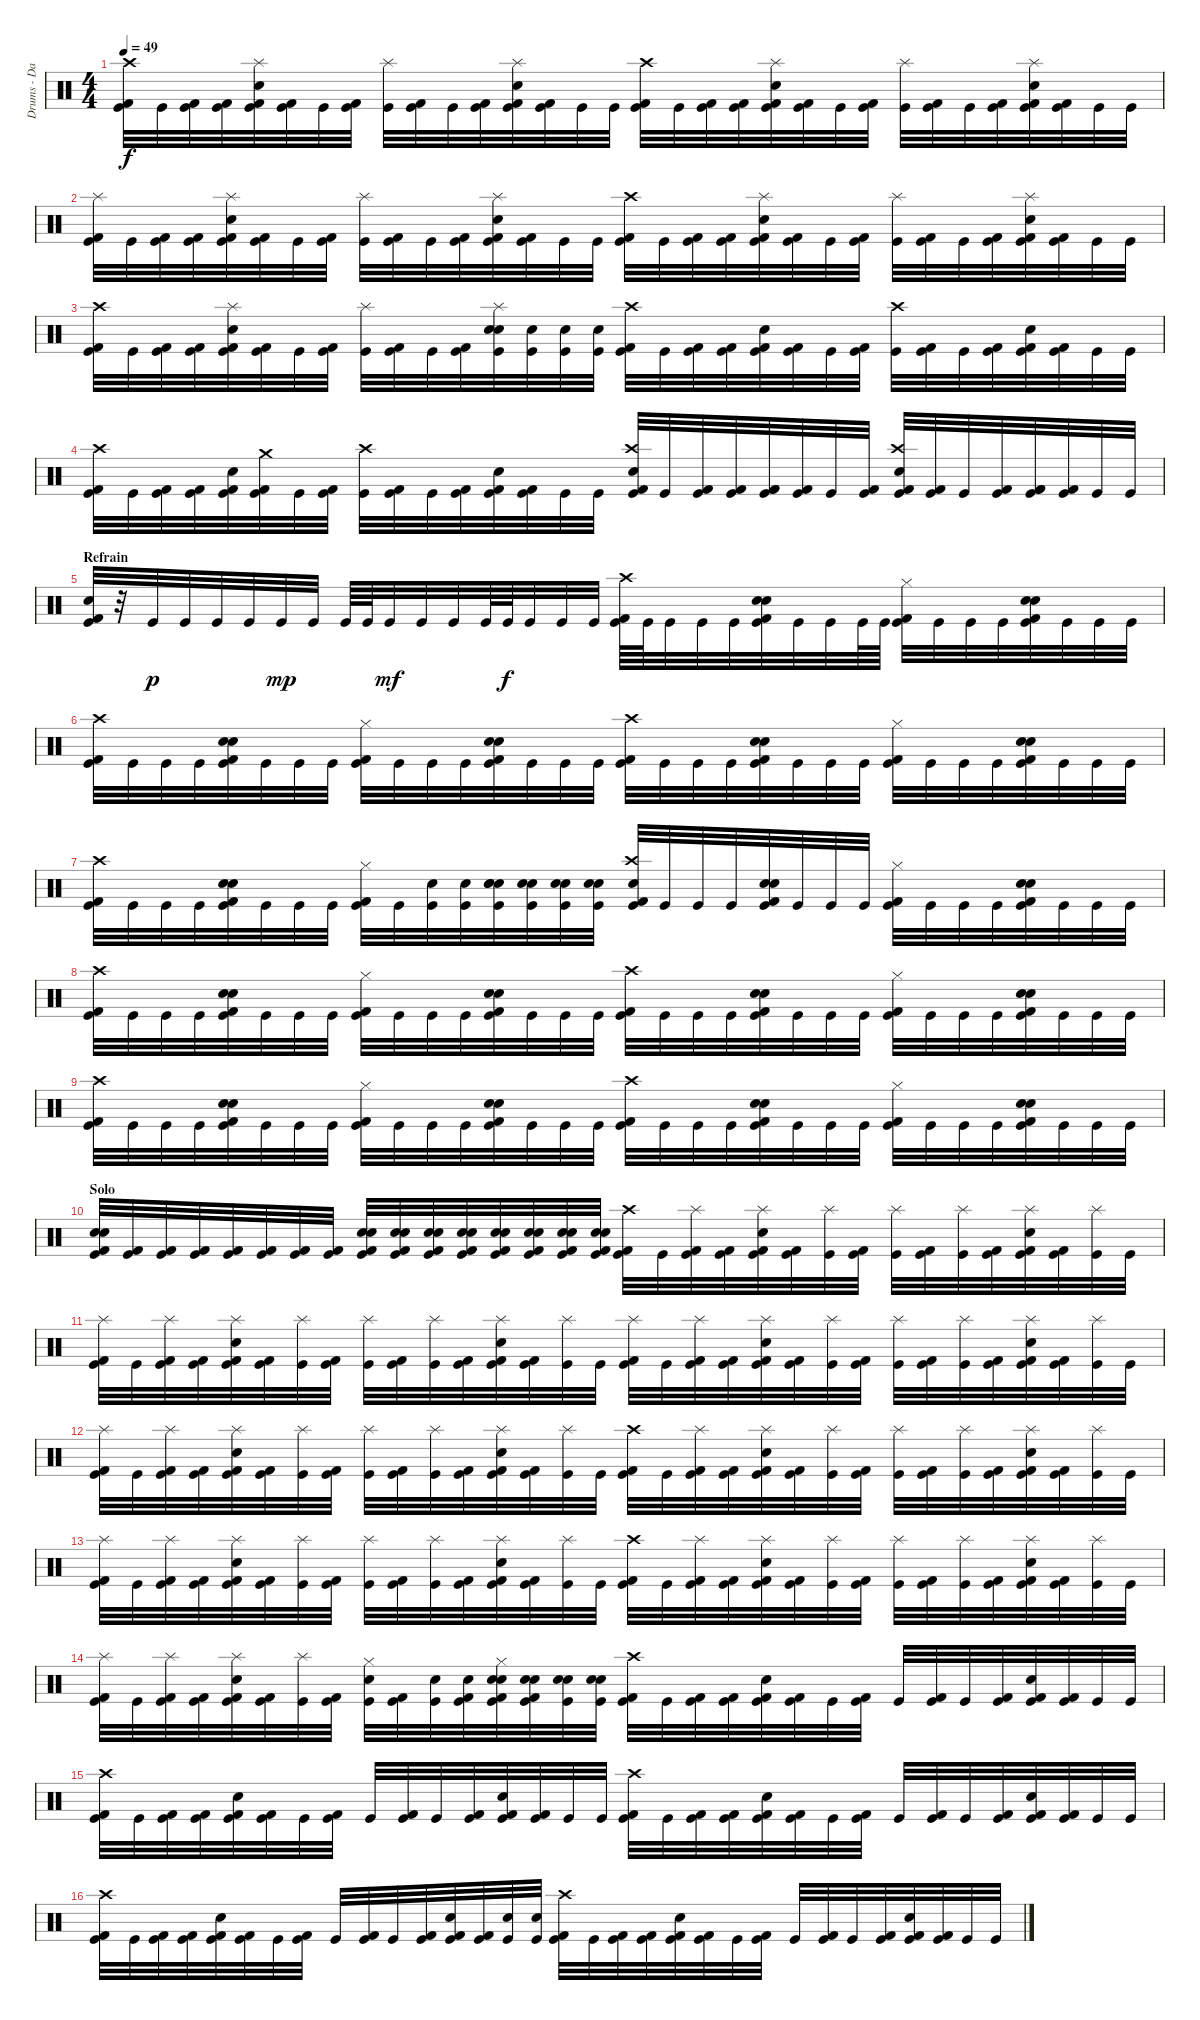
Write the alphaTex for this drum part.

\track ("Drums - Dan Zimmermann" "Drums - Da") {instrument percussion}
\staff {score}
\articulation defaults
\ts (4 4)
\tempo 49
\clef neutral
\ks c
("Kick (hit)" "Kick (hit) 2" "Crash high (hit)").32{dy f} "Kick (hit)".32 ("Kick (hit)" "Kick (hit) 2").32 ("Kick (hit)" "Kick (hit) 2").32 ("Kick (hit)" "Kick (hit) 2" "Electric Snare (hit)" "Splash (hit)").32 ("Kick (hit)" "Kick (hit) 2").32 "Kick (hit)".32 ("Kick (hit)" "Kick (hit) 2").32 ("Kick (hit)" "Splash (hit)").32 ("Kick (hit)" "Kick (hit) 2").32 "Kick (hit)".32 ("Kick (hit)" "Kick (hit) 2").32 ("Kick (hit)" "Kick (hit) 2" "Electric Snare (hit)" "Splash (hit)").32 ("Kick (hit)" "Kick (hit) 2").32 "Kick (hit)".32 "Kick (hit)".32 ("Kick (hit)" "Kick (hit) 2" "Crash high (hit)").32 "Kick (hit)".32 ("Kick (hit)" "Kick (hit) 2").32 ("Kick (hit)" "Kick (hit) 2").32 ("Kick (hit)" "Kick (hit) 2" "Electric Snare (hit)" "Splash (hit)").32 ("Kick (hit)" "Kick (hit) 2").32 "Kick (hit)".32 ("Kick (hit)" "Kick (hit) 2").32 ("Kick (hit)" "Splash (hit)").32 ("Kick (hit)" "Kick (hit) 2").32 "Kick (hit)".32 ("Kick (hit)" "Kick (hit) 2").32 ("Kick (hit)" "Kick (hit) 2" "Electric Snare (hit)" "Splash (hit)").32 ("Kick (hit)" "Kick (hit) 2").32 "Kick (hit)".32 "Kick (hit)".32 |
("Kick (hit)" "Kick (hit) 2" "Splash (hit)").32 "Kick (hit)".32 ("Kick (hit)" "Kick (hit) 2").32 ("Kick (hit)" "Kick (hit) 2").32 ("Kick (hit)" "Kick (hit) 2" "Electric Snare (hit)" "Splash (hit)").32 ("Kick (hit)" "Kick (hit) 2").32 "Kick (hit)".32 ("Kick (hit)" "Kick (hit) 2").32 ("Kick (hit)" "Splash (hit)").32 ("Kick (hit)" "Kick (hit) 2").32 "Kick (hit)".32 ("Kick (hit)" "Kick (hit) 2").32 ("Kick (hit)" "Kick (hit) 2" "Electric Snare (hit)" "Splash (hit)").32 ("Kick (hit)" "Kick (hit) 2").32 "Kick (hit)".32 "Kick (hit)".32 ("Kick (hit)" "Kick (hit) 2" "Crash high (hit)").32 "Kick (hit)".32 ("Kick (hit)" "Kick (hit) 2").32 ("Kick (hit)" "Kick (hit) 2").32 ("Kick (hit)" "Kick (hit) 2" "Electric Snare (hit)" "Splash (hit)").32 ("Kick (hit)" "Kick (hit) 2").32 "Kick (hit)".32 ("Kick (hit)" "Kick (hit) 2").32 ("Kick (hit)" "Splash (hit)").32 ("Kick (hit)" "Kick (hit) 2").32 "Kick (hit)".32 ("Kick (hit)" "Kick (hit) 2").32 ("Kick (hit)" "Kick (hit) 2" "Electric Snare (hit)" "Splash (hit)").32 ("Kick (hit)" "Kick (hit) 2").32 "Kick (hit)".32 "Kick (hit)".32 |
("Kick (hit)" "Kick (hit) 2" "Crash high (hit)").32 "Kick (hit)".32 ("Kick (hit)" "Kick (hit) 2").32 ("Kick (hit)" "Kick (hit) 2").32 ("Kick (hit)" "Kick (hit) 2" "Electric Snare (hit)" "Splash (hit)").32 ("Kick (hit)" "Kick (hit) 2").32 "Kick (hit)".32 ("Kick (hit)" "Kick (hit) 2").32 ("Kick (hit)" "Splash (hit)").32 ("Kick (hit)" "Kick (hit) 2").32 "Kick (hit)".32 ("Kick (hit)" "Kick (hit) 2").32 ("Kick (hit)" "Snare (hit) 2" "Electric Snare (hit)" "Splash (hit)").32 ("Kick (hit)" "Snare (hit) 2").32 ("Kick (hit)" "Snare (hit) 2").32 ("Kick (hit)" "Snare (hit) 2").32 ("Kick (hit)" "Kick (hit) 2" "Crash high (hit)").32 "Kick (hit)".32 ("Kick (hit)" "Kick (hit) 2").32 ("Kick (hit)" "Kick (hit) 2").32 ("Kick (hit)" "Kick (hit) 2" "Electric Snare (hit)").32 ("Kick (hit)" "Kick (hit) 2").32 "Kick (hit)".32 ("Kick (hit)" "Kick (hit) 2").32 ("Kick (hit)" "Crash high (hit)").32 ("Kick (hit)" "Kick (hit) 2").32 "Kick (hit)".32 ("Kick (hit)" "Kick (hit) 2").32 ("Kick (hit)" "Kick (hit) 2" "Electric Snare (hit)").32 ("Kick (hit)" "Kick (hit) 2").32 "Kick (hit)".32 "Kick (hit)".32 |
("Kick (hit)" "Kick (hit) 2" "Crash high (hit)").32 "Kick (hit)".32 ("Kick (hit)" "Kick (hit) 2").32 ("Kick (hit)" "Kick (hit) 2").32 ("Kick (hit)" "Kick (hit) 2" "Electric Snare (hit)").32 ("Kick (hit)" "Kick (hit) 2" "Crash medium (hit)").32 "Kick (hit)".32 ("Kick (hit)" "Kick (hit) 2").32 ("Kick (hit)" "Crash high (hit)").32 ("Kick (hit)" "Kick (hit) 2").32 "Kick (hit)".32 ("Kick (hit)" "Kick (hit) 2").32 ("Kick (hit)" "Kick (hit) 2" "Electric Snare (hit)").32 ("Kick (hit)" "Kick (hit) 2").32 "Kick (hit)".32 "Kick (hit)".32 ("Kick (hit)" "Kick (hit) 2" "Snare (hit) 2" "Crash high (hit)").32 "Kick (hit)".32 ("Kick (hit)" "Kick (hit) 2").32 ("Kick (hit)" "Kick (hit) 2").32 ("Kick (hit)" "Kick (hit) 2" "Kick (hit) 2").32 ("Kick (hit)" "Kick (hit) 2").32 "Kick (hit)".32 ("Kick (hit)" "Kick (hit) 2").32 ("Kick (hit)" "Kick (hit) 2" "Snare (hit) 2" "Crash high (hit)").32 ("Kick (hit)" "Kick (hit) 2").32 "Kick (hit)".32 ("Kick (hit)" "Kick (hit) 2").32 ("Kick (hit)" "Kick (hit) 2" "Kick (hit) 2").32 ("Kick (hit)" "Kick (hit) 2").32 "Kick (hit)".32 "Kick (hit)".32 |
\section ("" "Refrain ")
("Kick (hit)" "Kick (hit) 2" "Snare (hit) 2").32 r.32 "Kick (hit)".32{dy p} "Kick (hit)".32 "Kick (hit)".32 "Kick (hit)".32 "Kick (hit)".32{dy mp} "Kick (hit)".32 "Kick (hit)".64 "Kick (hit)".64 "Kick (hit)".32{dy mf} "Kick (hit)".32 "Kick (hit)".32 "Kick (hit)".64 "Kick (hit)".64{dy f} "Kick (hit)".32 "Kick (hit)".32 "Kick (hit)".32 ("Kick (hit)" "Kick (hit) 2" "Crash high (hit)").64 "Kick (hit)".64 "Kick (hit)".32 "Kick (hit)".32 "Kick (hit)".32 ("Kick (hit)" "Kick (hit) 2" "Snare (hit) 2" "Electric Snare (hit)").32 "Kick (hit)".32 "Kick (hit)".32 "Kick (hit)".64 "Kick (hit)".64 ("Kick (hit)" "Kick (hit) 2" "Hi-Hat (closed)").32 "Kick (hit)".32 "Kick (hit)".32 "Kick (hit)".32 ("Kick (hit)" "Kick (hit) 2" "Snare (hit) 2" "Electric Snare (hit)").32 "Kick (hit)".32 "Kick (hit)".32 "Kick (hit)".32 |
("Kick (hit)" "Kick (hit) 2" "Crash high (hit)").32 "Kick (hit)".32 "Kick (hit)".32 "Kick (hit)".32 ("Kick (hit)" "Kick (hit) 2" "Snare (hit) 2" "Electric Snare (hit)").32 "Kick (hit)".32 "Kick (hit)".32 "Kick (hit)".32 ("Kick (hit)" "Kick (hit) 2" "Hi-Hat (closed)").32 "Kick (hit)".32 "Kick (hit)".32 "Kick (hit)".32 ("Kick (hit)" "Kick (hit) 2" "Snare (hit) 2" "Electric Snare (hit)").32 "Kick (hit)".32 "Kick (hit)".32 "Kick (hit)".32 ("Kick (hit)" "Kick (hit) 2" "Crash high (hit)").32 "Kick (hit)".32 "Kick (hit)".32 "Kick (hit)".32 ("Kick (hit)" "Kick (hit) 2" "Snare (hit) 2" "Electric Snare (hit)").32 "Kick (hit)".32 "Kick (hit)".32 "Kick (hit)".32 ("Kick (hit)" "Kick (hit) 2" "Hi-Hat (closed)").32 "Kick (hit)".32 "Kick (hit)".32 "Kick (hit)".32 ("Kick (hit)" "Kick (hit) 2" "Snare (hit) 2" "Electric Snare (hit)").32 "Kick (hit)".32 "Kick (hit)".32 "Kick (hit)".32 |
("Kick (hit)" "Kick (hit) 2" "Crash high (hit)").32 "Kick (hit)".32 "Kick (hit)".32 "Kick (hit)".32 ("Kick (hit)" "Kick (hit) 2" "Snare (hit) 2" "Electric Snare (hit)").32 "Kick (hit)".32 "Kick (hit)".32 "Kick (hit)".32 ("Kick (hit)" "Kick (hit) 2" "Hi-Hat (closed)").32 "Kick (hit)".32 ("Kick (hit)" "Snare (hit) 2").32 ("Kick (hit)" "Snare (hit) 2").32 ("Kick (hit)" "Snare (hit) 2" "Snare (hit) 2" "Electric Snare (hit)").32 ("Kick (hit)" "Snare (hit) 2" "Electric Snare (hit)").32 ("Kick (hit)" "Snare (hit) 2" "Electric Snare (hit)").32 ("Kick (hit)" "Snare (hit) 2" "Electric Snare (hit)").32 ("Kick (hit)" "Kick (hit) 2" "Crash high (hit)" "Electric Snare (hit)").32 "Kick (hit)".32 "Kick (hit)".32 "Kick (hit)".32 ("Kick (hit)" "Kick (hit) 2" "Snare (hit) 2" "Electric Snare (hit)").32 "Kick (hit)".32 "Kick (hit)".32 "Kick (hit)".32 ("Kick (hit)" "Kick (hit) 2" "Hi-Hat (closed)").32 "Kick (hit)".32 "Kick (hit)".32 "Kick (hit)".32 ("Kick (hit)" "Kick (hit) 2" "Snare (hit) 2" "Electric Snare (hit)").32 "Kick (hit)".32 "Kick (hit)".32 "Kick (hit)".32 |
("Kick (hit)" "Kick (hit) 2" "Crash high (hit)").32 "Kick (hit)".32 "Kick (hit)".32 "Kick (hit)".32 ("Kick (hit)" "Kick (hit) 2" "Snare (hit) 2" "Electric Snare (hit)").32 "Kick (hit)".32 "Kick (hit)".32 "Kick (hit)".32 ("Kick (hit)" "Kick (hit) 2" "Hi-Hat (closed)").32 "Kick (hit)".32 "Kick (hit)".32 "Kick (hit)".32 ("Kick (hit)" "Kick (hit) 2" "Snare (hit) 2" "Electric Snare (hit)").32 "Kick (hit)".32 "Kick (hit)".32 "Kick (hit)".32 ("Kick (hit)" "Kick (hit) 2" "Crash high (hit)").32 "Kick (hit)".32 "Kick (hit)".32 "Kick (hit)".32 ("Kick (hit)" "Kick (hit) 2" "Snare (hit) 2" "Electric Snare (hit)").32 "Kick (hit)".32 "Kick (hit)".32 "Kick (hit)".32 ("Kick (hit)" "Kick (hit) 2" "Hi-Hat (closed)").32 "Kick (hit)".32 "Kick (hit)".32 "Kick (hit)".32 ("Kick (hit)" "Kick (hit) 2" "Snare (hit) 2" "Electric Snare (hit)").32 "Kick (hit)".32 "Kick (hit)".32 "Kick (hit)".32 |
("Kick (hit)" "Kick (hit) 2" "Crash high (hit)").32 "Kick (hit)".32 "Kick (hit)".32 "Kick (hit)".32 ("Kick (hit)" "Kick (hit) 2" "Snare (hit) 2" "Electric Snare (hit)").32 "Kick (hit)".32 "Kick (hit)".32 "Kick (hit)".32 ("Kick (hit)" "Kick (hit) 2" "Hi-Hat (closed)").32 "Kick (hit)".32 "Kick (hit)".32 "Kick (hit)".32 ("Kick (hit)" "Kick (hit) 2" "Snare (hit) 2" "Electric Snare (hit)").32 "Kick (hit)".32 "Kick (hit)".32 "Kick (hit)".32 ("Kick (hit)" "Kick (hit) 2" "Crash high (hit)").32 "Kick (hit)".32 "Kick (hit)".32 "Kick (hit)".32 ("Kick (hit)" "Kick (hit) 2" "Snare (hit) 2" "Electric Snare (hit)").32 "Kick (hit)".32 "Kick (hit)".32 "Kick (hit)".32 ("Kick (hit)" "Kick (hit) 2" "Hi-Hat (closed)").32 "Kick (hit)".32 "Kick (hit)".32 "Kick (hit)".32 ("Kick (hit)" "Kick (hit) 2" "Snare (hit) 2" "Electric Snare (hit)").32 "Kick (hit)".32 "Kick (hit)".32 "Kick (hit)".32 |
\section ("" "Solo")
("Kick (hit)" "Kick (hit) 2" "Snare (hit) 2" "Electric Snare (hit)").32 ("Kick (hit)" "Kick (hit) 2").32 ("Kick (hit)" "Kick (hit) 2").32 ("Kick (hit)" "Kick (hit) 2").32 ("Kick (hit)" "Kick (hit) 2").32 ("Kick (hit)" "Kick (hit) 2").32 ("Kick (hit)" "Kick (hit) 2").32 ("Kick (hit)" "Kick (hit) 2").32 ("Kick (hit)" "Kick (hit) 2" "Snare (hit) 2" "Electric Snare (hit)").32 ("Kick (hit)" "Kick (hit) 2" "Snare (hit) 2" "Electric Snare (hit)").32 ("Kick (hit)" "Kick (hit) 2" "Snare (hit) 2" "Electric Snare (hit)").32 ("Kick (hit)" "Kick (hit) 2" "Snare (hit) 2" "Electric Snare (hit)").32 ("Kick (hit)" "Kick (hit) 2" "Snare (hit) 2" "Electric Snare (hit)").32 ("Kick (hit)" "Kick (hit) 2" "Snare (hit) 2" "Electric Snare (hit)").32 ("Kick (hit)" "Kick (hit) 2" "Snare (hit) 2" "Electric Snare (hit)").32 ("Kick (hit)" "Kick (hit) 2" "Snare (hit) 2" "Electric Snare (hit)").32 ("Kick (hit)" "Kick (hit) 2" "Crash high (hit)").32 "Kick (hit)".32 ("Kick (hit)" "Kick (hit) 2" "Splash (hit)").32 ("Kick (hit)" "Kick (hit) 2").32 ("Kick (hit)" "Kick (hit) 2" "Electric Snare (hit)" "Splash (hit)").32 ("Kick (hit)" "Kick (hit) 2").32 ("Kick (hit)" "Splash (hit)").32 ("Kick (hit)" "Kick (hit) 2").32 ("Kick (hit)" "Splash (hit)").32 ("Kick (hit)" "Kick (hit) 2").32 ("Kick (hit)" "Splash (hit)").32 ("Kick (hit)" "Kick (hit) 2").32 ("Kick (hit)" "Kick (hit) 2" "Electric Snare (hit)" "Splash (hit)").32 ("Kick (hit)" "Kick (hit) 2").32 ("Kick (hit)" "Splash (hit)").32 "Kick (hit)".32 |
("Kick (hit)" "Kick (hit) 2" "Splash (hit)").32 "Kick (hit)".32 ("Kick (hit)" "Kick (hit) 2" "Splash (hit)").32 ("Kick (hit)" "Kick (hit) 2").32 ("Kick (hit)" "Kick (hit) 2" "Electric Snare (hit)" "Splash (hit)").32 ("Kick (hit)" "Kick (hit) 2").32 ("Kick (hit)" "Splash (hit)").32 ("Kick (hit)" "Kick (hit) 2").32 ("Kick (hit)" "Splash (hit)").32 ("Kick (hit)" "Kick (hit) 2").32 ("Kick (hit)" "Splash (hit)").32 ("Kick (hit)" "Kick (hit) 2").32 ("Kick (hit)" "Kick (hit) 2" "Electric Snare (hit)" "Splash (hit)").32 ("Kick (hit)" "Kick (hit) 2").32 ("Kick (hit)" "Splash (hit)").32 "Kick (hit)".32 ("Kick (hit)" "Kick (hit) 2" "Splash (hit)").32 "Kick (hit)".32 ("Kick (hit)" "Kick (hit) 2" "Splash (hit)").32 ("Kick (hit)" "Kick (hit) 2").32 ("Kick (hit)" "Kick (hit) 2" "Electric Snare (hit)" "Splash (hit)").32 ("Kick (hit)" "Kick (hit) 2").32 ("Kick (hit)" "Splash (hit)").32 ("Kick (hit)" "Kick (hit) 2").32 ("Kick (hit)" "Splash (hit)").32 ("Kick (hit)" "Kick (hit) 2").32 ("Kick (hit)" "Splash (hit)").32 ("Kick (hit)" "Kick (hit) 2").32 ("Kick (hit)" "Kick (hit) 2" "Electric Snare (hit)" "Splash (hit)").32 ("Kick (hit)" "Kick (hit) 2").32 ("Kick (hit)" "Splash (hit)").32 "Kick (hit)".32 |
("Kick (hit)" "Kick (hit) 2" "Splash (hit)").32 "Kick (hit)".32 ("Kick (hit)" "Kick (hit) 2" "Splash (hit)").32 ("Kick (hit)" "Kick (hit) 2").32 ("Kick (hit)" "Kick (hit) 2" "Electric Snare (hit)" "Splash (hit)").32 ("Kick (hit)" "Kick (hit) 2").32 ("Kick (hit)" "Splash (hit)").32 ("Kick (hit)" "Kick (hit) 2").32 ("Kick (hit)" "Splash (hit)").32 ("Kick (hit)" "Kick (hit) 2").32 ("Kick (hit)" "Splash (hit)").32 ("Kick (hit)" "Kick (hit) 2").32 ("Kick (hit)" "Kick (hit) 2" "Electric Snare (hit)" "Splash (hit)").32 ("Kick (hit)" "Kick (hit) 2").32 ("Kick (hit)" "Splash (hit)").32 "Kick (hit)".32 ("Kick (hit)" "Kick (hit) 2" "Crash high (hit)").32 "Kick (hit)".32 ("Kick (hit)" "Kick (hit) 2" "Splash (hit)").32 ("Kick (hit)" "Kick (hit) 2").32 ("Kick (hit)" "Kick (hit) 2" "Electric Snare (hit)" "Splash (hit)").32 ("Kick (hit)" "Kick (hit) 2").32 ("Kick (hit)" "Splash (hit)").32 ("Kick (hit)" "Kick (hit) 2").32 ("Kick (hit)" "Splash (hit)").32 ("Kick (hit)" "Kick (hit) 2").32 ("Kick (hit)" "Splash (hit)").32 ("Kick (hit)" "Kick (hit) 2").32 ("Kick (hit)" "Kick (hit) 2" "Electric Snare (hit)" "Splash (hit)").32 ("Kick (hit)" "Kick (hit) 2").32 ("Kick (hit)" "Splash (hit)").32 "Kick (hit)".32 |
("Kick (hit)" "Kick (hit) 2" "Splash (hit)").32 "Kick (hit)".32 ("Kick (hit)" "Kick (hit) 2" "Splash (hit)").32 ("Kick (hit)" "Kick (hit) 2").32 ("Kick (hit)" "Kick (hit) 2" "Electric Snare (hit)" "Splash (hit)").32 ("Kick (hit)" "Kick (hit) 2").32 ("Kick (hit)" "Splash (hit)").32 ("Kick (hit)" "Kick (hit) 2").32 ("Kick (hit)" "Splash (hit)").32 ("Kick (hit)" "Kick (hit) 2").32 ("Kick (hit)" "Splash (hit)").32 ("Kick (hit)" "Kick (hit) 2").32 ("Kick (hit)" "Kick (hit) 2" "Electric Snare (hit)" "Splash (hit)").32 ("Kick (hit)" "Kick (hit) 2").32 ("Kick (hit)" "Splash (hit)").32 "Kick (hit)".32 ("Kick (hit)" "Kick (hit) 2" "Crash high (hit)").32 "Kick (hit)".32 ("Kick (hit)" "Kick (hit) 2" "Splash (hit)").32 ("Kick (hit)" "Kick (hit) 2").32 ("Kick (hit)" "Kick (hit) 2" "Electric Snare (hit)" "Splash (hit)").32 ("Kick (hit)" "Kick (hit) 2").32 ("Kick (hit)" "Splash (hit)").32 ("Kick (hit)" "Kick (hit) 2").32 ("Kick (hit)" "Splash (hit)").32 ("Kick (hit)" "Kick (hit) 2").32 ("Kick (hit)" "Splash (hit)").32 ("Kick (hit)" "Kick (hit) 2").32 ("Kick (hit)" "Kick (hit) 2" "Electric Snare (hit)" "Splash (hit)").32 ("Kick (hit)" "Kick (hit) 2").32 ("Kick (hit)" "Splash (hit)").32 "Kick (hit)".32 |
("Kick (hit)" "Kick (hit) 2" "Splash (hit)").32 "Kick (hit)".32 ("Kick (hit)" "Kick (hit) 2" "Splash (hit)").32 ("Kick (hit)" "Kick (hit) 2").32 ("Kick (hit)" "Kick (hit) 2" "Electric Snare (hit)" "Splash (hit)").32 ("Kick (hit)" "Kick (hit) 2").32 ("Kick (hit)" "Splash (hit)").32 ("Kick (hit)" "Kick (hit) 2").32 ("Kick (hit)" "Electric Snare (hit)" "Hi-Hat (closed)").32 ("Kick (hit)" "Kick (hit) 2").32 ("Kick (hit)" "Electric Snare (hit)").32 ("Kick (hit)" "Kick (hit) 2" "Electric Snare (hit)").32 ("Kick (hit)" "Kick (hit) 2" "Snare (hit) 2" "Electric Snare (hit)" "Hi-Hat (closed)").32 ("Kick (hit)" "Kick (hit) 2" "Snare (hit) 2" "Electric Snare (hit)").32 ("Kick (hit)" "Snare (hit) 2" "Electric Snare (hit)").32 ("Kick (hit)" "Snare (hit) 2" "Electric Snare (hit)").32 ("Kick (hit)" "Kick (hit) 2" "Crash high (hit)").32 "Kick (hit)".32 ("Kick (hit)" "Kick (hit) 2").32 ("Kick (hit)" "Kick (hit) 2").32 ("Kick (hit)" "Kick (hit) 2" "Electric Snare (hit)").32 ("Kick (hit)" "Kick (hit) 2").32 "Kick (hit)".32 ("Kick (hit)" "Kick (hit) 2").32 "Kick (hit)".32 ("Kick (hit)" "Kick (hit) 2").32 "Kick (hit)".32 ("Kick (hit)" "Kick (hit) 2").32 ("Kick (hit)" "Kick (hit) 2" "Electric Snare (hit)").32 ("Kick (hit)" "Kick (hit) 2").32 "Kick (hit)".32 "Kick (hit)".32 |
("Kick (hit)" "Kick (hit) 2" "Crash high (hit)").32 "Kick (hit)".32 ("Kick (hit)" "Kick (hit) 2").32 ("Kick (hit)" "Kick (hit) 2").32 ("Kick (hit)" "Kick (hit) 2" "Electric Snare (hit)").32 ("Kick (hit)" "Kick (hit) 2").32 "Kick (hit)".32 ("Kick (hit)" "Kick (hit) 2").32 "Kick (hit)".32 ("Kick (hit)" "Kick (hit) 2").32 "Kick (hit)".32 ("Kick (hit)" "Kick (hit) 2").32 ("Kick (hit)" "Kick (hit) 2" "Electric Snare (hit)").32 ("Kick (hit)" "Kick (hit) 2").32 "Kick (hit)".32 "Kick (hit)".32 ("Kick (hit)" "Kick (hit) 2" "Crash high (hit)").32 "Kick (hit)".32 ("Kick (hit)" "Kick (hit) 2").32 ("Kick (hit)" "Kick (hit) 2").32 ("Kick (hit)" "Kick (hit) 2" "Electric Snare (hit)").32 ("Kick (hit)" "Kick (hit) 2").32 "Kick (hit)".32 ("Kick (hit)" "Kick (hit) 2").32 "Kick (hit)".32 ("Kick (hit)" "Kick (hit) 2").32 "Kick (hit)".32 ("Kick (hit)" "Kick (hit) 2").32 ("Kick (hit)" "Kick (hit) 2" "Electric Snare (hit)").32 ("Kick (hit)" "Kick (hit) 2").32 "Kick (hit)".32 "Kick (hit)".32 |
("Kick (hit)" "Kick (hit) 2" "Crash high (hit)").32 "Kick (hit)".32 ("Kick (hit)" "Kick (hit) 2").32 ("Kick (hit)" "Kick (hit) 2").32 ("Kick (hit)" "Kick (hit) 2" "Electric Snare (hit)").32 ("Kick (hit)" "Kick (hit) 2").32 "Kick (hit)".32 ("Kick (hit)" "Kick (hit) 2").32 "Kick (hit)".32 ("Kick (hit)" "Kick (hit) 2").32 "Kick (hit)".32 ("Kick (hit)" "Kick (hit) 2").32 ("Kick (hit)" "Kick (hit) 2" "Electric Snare (hit)").32 ("Kick (hit)" "Kick (hit) 2").32 ("Kick (hit)" "Electric Snare (hit)").32 ("Kick (hit)" "Electric Snare (hit)").32 ("Kick (hit)" "Kick (hit) 2" "Crash high (hit)").32 "Kick (hit)".32 ("Kick (hit)" "Kick (hit) 2").32 ("Kick (hit)" "Kick (hit) 2").32 ("Kick (hit)" "Kick (hit) 2" "Electric Snare (hit)").32 ("Kick (hit)" "Kick (hit) 2").32 "Kick (hit)".32 ("Kick (hit)" "Kick (hit) 2").32 "Kick (hit)".32 ("Kick (hit)" "Kick (hit) 2").32 "Kick (hit)".32 ("Kick (hit)" "Kick (hit) 2").32 ("Kick (hit)" "Kick (hit) 2" "Electric Snare (hit)").32 ("Kick (hit)" "Kick (hit) 2").32 "Kick (hit)".32 "Kick (hit)".32
